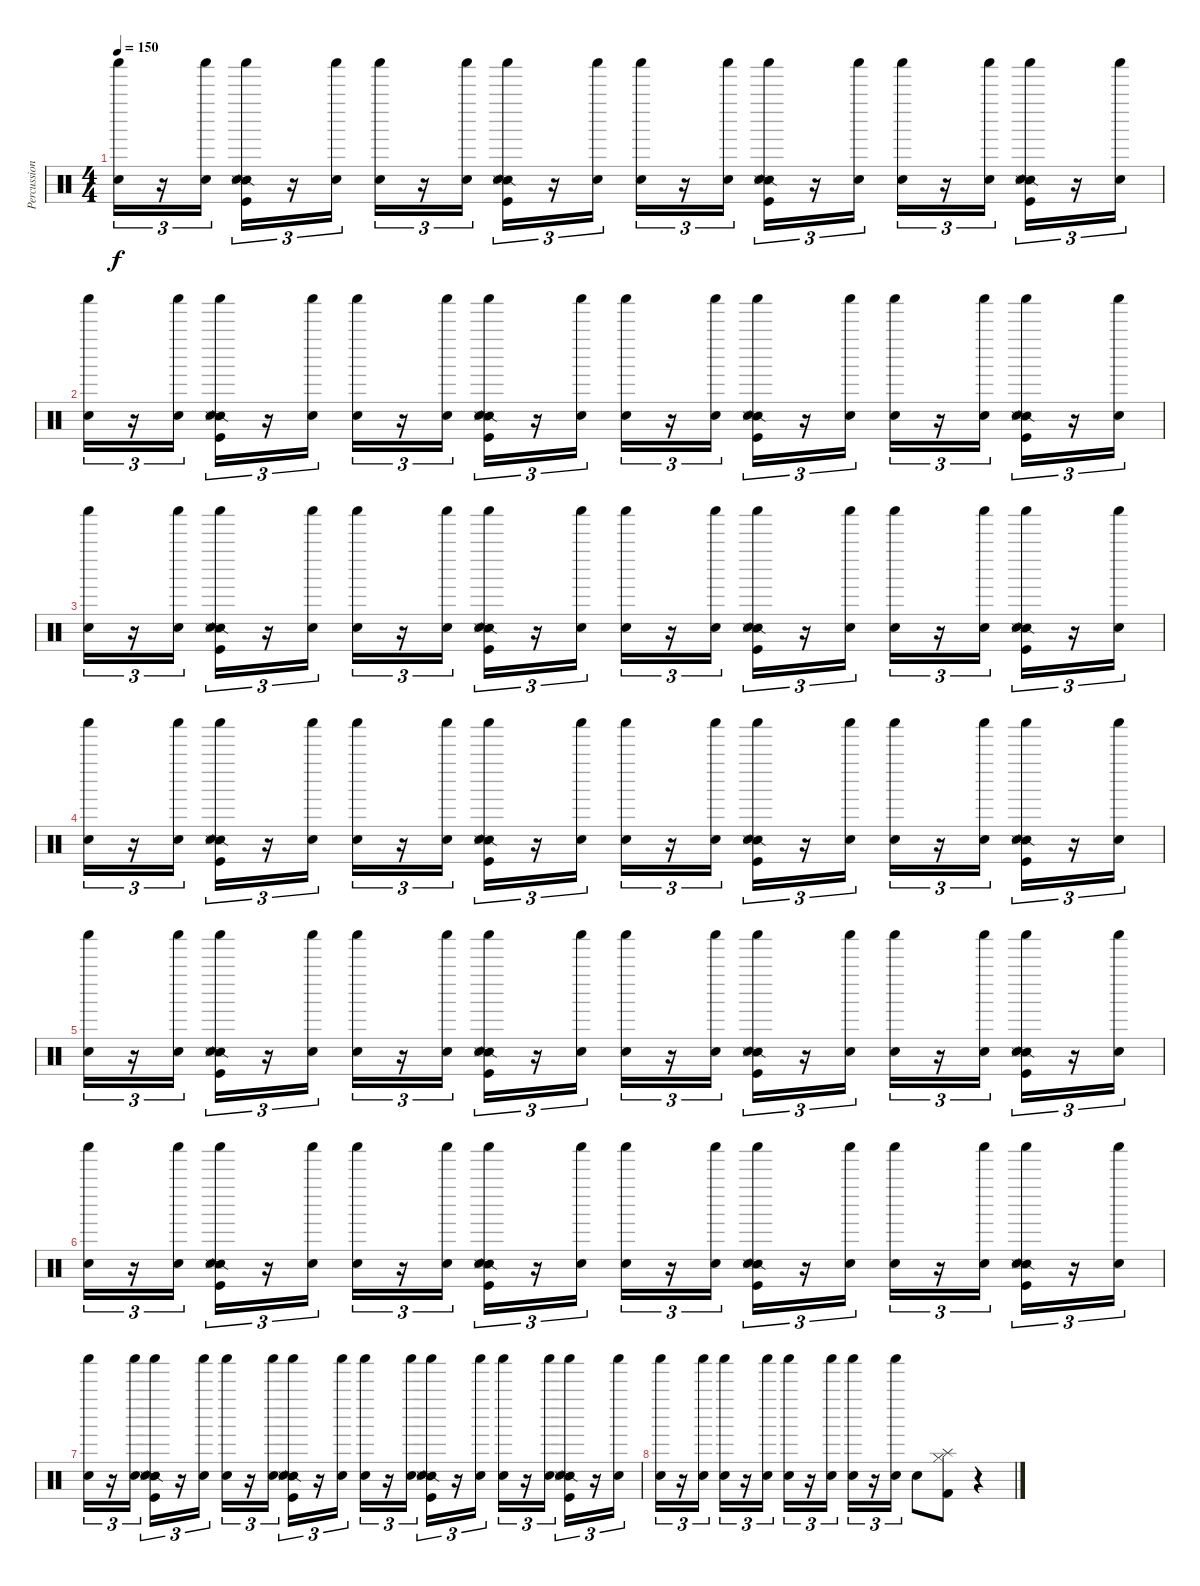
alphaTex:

\track ("Percussion" "Percussion") {instrument percussion}
\staff {score}
\articulation defaults
\ts (4 4)
\tempo 150
\clef neutral
\ks c
("Snare (hit) 2" "Shaker (hit)").16{tu (3 2) dy f} r.16{tu (3 2)} ("Snare (hit) 2" "Shaker (hit)").16{tu (3 2)} ("Snare (side stick) 2" "Snare (hit) 2" "Shaker (hit)" "Metronome (hit)" "Kick (hit)").16{tu (3 2)} r.16{tu (3 2)} ("Snare (hit) 2" "Shaker (hit)").16{tu (3 2)} ("Snare (hit) 2" "Shaker (hit)").16{tu (3 2)} r.16{tu (3 2)} ("Snare (hit) 2" "Shaker (hit)").16{tu (3 2)} ("Snare (side stick) 2" "Snare (hit) 2" "Shaker (hit)" "Metronome (hit)" "Kick (hit)").16{tu (3 2)} r.16{tu (3 2)} ("Snare (hit) 2" "Shaker (hit)").16{tu (3 2)} ("Snare (hit) 2" "Shaker (hit)").16{tu (3 2)} r.16{tu (3 2)} ("Snare (hit) 2" "Shaker (hit)").16{tu (3 2)} ("Snare (side stick) 2" "Snare (hit) 2" "Shaker (hit)" "Metronome (hit)" "Kick (hit)").16{tu (3 2)} r.16{tu (3 2)} ("Snare (hit) 2" "Shaker (hit)").16{tu (3 2)} ("Snare (hit) 2" "Shaker (hit)").16{tu (3 2)} r.16{tu (3 2)} ("Snare (hit) 2" "Shaker (hit)").16{tu (3 2)} ("Snare (side stick) 2" "Snare (hit) 2" "Shaker (hit)" "Metronome (hit)" "Kick (hit)").16{tu (3 2)} r.16{tu (3 2)} ("Snare (hit) 2" "Shaker (hit)").16{tu (3 2)} |
("Snare (hit) 2" "Shaker (hit)").16{tu (3 2)} r.16{tu (3 2)} ("Snare (hit) 2" "Shaker (hit)").16{tu (3 2)} ("Snare (side stick) 2" "Snare (hit) 2" "Shaker (hit)" "Metronome (hit)" "Kick (hit)").16{tu (3 2)} r.16{tu (3 2)} ("Snare (hit) 2" "Shaker (hit)").16{tu (3 2)} ("Snare (hit) 2" "Shaker (hit)").16{tu (3 2)} r.16{tu (3 2)} ("Snare (hit) 2" "Shaker (hit)").16{tu (3 2)} ("Snare (side stick) 2" "Snare (hit) 2" "Shaker (hit)" "Metronome (hit)" "Kick (hit)").16{tu (3 2)} r.16{tu (3 2)} ("Snare (hit) 2" "Shaker (hit)").16{tu (3 2)} ("Snare (hit) 2" "Shaker (hit)").16{tu (3 2)} r.16{tu (3 2)} ("Snare (hit) 2" "Shaker (hit)").16{tu (3 2)} ("Snare (side stick) 2" "Snare (hit) 2" "Shaker (hit)" "Metronome (hit)" "Kick (hit)").16{tu (3 2)} r.16{tu (3 2)} ("Snare (hit) 2" "Shaker (hit)").16{tu (3 2)} ("Snare (hit) 2" "Shaker (hit)").16{tu (3 2)} r.16{tu (3 2)} ("Snare (hit) 2" "Shaker (hit)").16{tu (3 2)} ("Snare (side stick) 2" "Snare (hit) 2" "Shaker (hit)" "Metronome (hit)" "Kick (hit)").16{tu (3 2)} r.16{tu (3 2)} ("Snare (hit) 2" "Shaker (hit)").16{tu (3 2)} |
("Snare (hit) 2" "Shaker (hit)").16{tu (3 2)} r.16{tu (3 2)} ("Snare (hit) 2" "Shaker (hit)").16{tu (3 2)} ("Snare (side stick) 2" "Snare (hit) 2" "Shaker (hit)" "Metronome (hit)" "Kick (hit)").16{tu (3 2)} r.16{tu (3 2)} ("Snare (hit) 2" "Shaker (hit)").16{tu (3 2)} ("Snare (hit) 2" "Shaker (hit)").16{tu (3 2)} r.16{tu (3 2)} ("Snare (hit) 2" "Shaker (hit)").16{tu (3 2)} ("Snare (side stick) 2" "Snare (hit) 2" "Shaker (hit)" "Metronome (hit)" "Kick (hit)").16{tu (3 2)} r.16{tu (3 2)} ("Snare (hit) 2" "Shaker (hit)").16{tu (3 2)} ("Snare (hit) 2" "Shaker (hit)").16{tu (3 2)} r.16{tu (3 2)} ("Snare (hit) 2" "Shaker (hit)").16{tu (3 2)} ("Snare (side stick) 2" "Snare (hit) 2" "Shaker (hit)" "Metronome (hit)" "Kick (hit)").16{tu (3 2)} r.16{tu (3 2)} ("Snare (hit) 2" "Shaker (hit)").16{tu (3 2)} ("Snare (hit) 2" "Shaker (hit)").16{tu (3 2)} r.16{tu (3 2)} ("Snare (hit) 2" "Shaker (hit)").16{tu (3 2)} ("Snare (side stick) 2" "Snare (hit) 2" "Shaker (hit)" "Metronome (hit)" "Kick (hit)").16{tu (3 2)} r.16{tu (3 2)} ("Snare (hit) 2" "Shaker (hit)").16{tu (3 2)} |
("Snare (hit) 2" "Shaker (hit)").16{tu (3 2)} r.16{tu (3 2)} ("Snare (hit) 2" "Shaker (hit)").16{tu (3 2)} ("Snare (side stick) 2" "Snare (hit) 2" "Shaker (hit)" "Metronome (hit)" "Kick (hit)").16{tu (3 2)} r.16{tu (3 2)} ("Snare (hit) 2" "Shaker (hit)").16{tu (3 2)} ("Snare (hit) 2" "Shaker (hit)").16{tu (3 2)} r.16{tu (3 2)} ("Snare (hit) 2" "Shaker (hit)").16{tu (3 2)} ("Snare (side stick) 2" "Snare (hit) 2" "Shaker (hit)" "Metronome (hit)" "Kick (hit)").16{tu (3 2)} r.16{tu (3 2)} ("Snare (hit) 2" "Shaker (hit)").16{tu (3 2)} ("Snare (hit) 2" "Shaker (hit)").16{tu (3 2)} r.16{tu (3 2)} ("Snare (hit) 2" "Shaker (hit)").16{tu (3 2)} ("Snare (side stick) 2" "Snare (hit) 2" "Shaker (hit)" "Metronome (hit)" "Kick (hit)").16{tu (3 2)} r.16{tu (3 2)} ("Snare (hit) 2" "Shaker (hit)").16{tu (3 2)} ("Snare (hit) 2" "Shaker (hit)").16{tu (3 2)} r.16{tu (3 2)} ("Snare (hit) 2" "Shaker (hit)").16{tu (3 2)} ("Snare (side stick) 2" "Snare (hit) 2" "Shaker (hit)" "Metronome (hit)" "Kick (hit)").16{tu (3 2)} r.16{tu (3 2)} ("Snare (hit) 2" "Shaker (hit)").16{tu (3 2)} |
("Snare (hit) 2" "Shaker (hit)").16{tu (3 2)} r.16{tu (3 2)} ("Snare (hit) 2" "Shaker (hit)").16{tu (3 2)} ("Snare (side stick) 2" "Snare (hit) 2" "Shaker (hit)" "Metronome (hit)" "Kick (hit)").16{tu (3 2)} r.16{tu (3 2)} ("Snare (hit) 2" "Shaker (hit)").16{tu (3 2)} ("Snare (hit) 2" "Shaker (hit)").16{tu (3 2)} r.16{tu (3 2)} ("Snare (hit) 2" "Shaker (hit)").16{tu (3 2)} ("Snare (side stick) 2" "Snare (hit) 2" "Shaker (hit)" "Metronome (hit)" "Kick (hit)").16{tu (3 2)} r.16{tu (3 2)} ("Snare (hit) 2" "Shaker (hit)").16{tu (3 2)} ("Snare (hit) 2" "Shaker (hit)").16{tu (3 2)} r.16{tu (3 2)} ("Snare (hit) 2" "Shaker (hit)").16{tu (3 2)} ("Snare (side stick) 2" "Snare (hit) 2" "Shaker (hit)" "Metronome (hit)" "Kick (hit)").16{tu (3 2)} r.16{tu (3 2)} ("Snare (hit) 2" "Shaker (hit)").16{tu (3 2)} ("Snare (hit) 2" "Shaker (hit)").16{tu (3 2)} r.16{tu (3 2)} ("Snare (hit) 2" "Shaker (hit)").16{tu (3 2)} ("Snare (side stick) 2" "Snare (hit) 2" "Shaker (hit)" "Metronome (hit)" "Kick (hit)").16{tu (3 2)} r.16{tu (3 2)} ("Snare (hit) 2" "Shaker (hit)").16{tu (3 2)} |
("Snare (hit) 2" "Shaker (hit)").16{tu (3 2)} r.16{tu (3 2)} ("Snare (hit) 2" "Shaker (hit)").16{tu (3 2)} ("Snare (side stick) 2" "Snare (hit) 2" "Shaker (hit)" "Metronome (hit)" "Kick (hit)").16{tu (3 2)} r.16{tu (3 2)} ("Snare (hit) 2" "Shaker (hit)").16{tu (3 2)} ("Snare (hit) 2" "Shaker (hit)").16{tu (3 2)} r.16{tu (3 2)} ("Snare (hit) 2" "Shaker (hit)").16{tu (3 2)} ("Snare (side stick) 2" "Snare (hit) 2" "Shaker (hit)" "Metronome (hit)" "Kick (hit)").16{tu (3 2)} r.16{tu (3 2)} ("Snare (hit) 2" "Shaker (hit)").16{tu (3 2)} ("Snare (hit) 2" "Shaker (hit)").16{tu (3 2)} r.16{tu (3 2)} ("Snare (hit) 2" "Shaker (hit)").16{tu (3 2)} ("Snare (side stick) 2" "Snare (hit) 2" "Shaker (hit)" "Metronome (hit)" "Kick (hit)").16{tu (3 2)} r.16{tu (3 2)} ("Snare (hit) 2" "Shaker (hit)").16{tu (3 2)} ("Snare (hit) 2" "Shaker (hit)").16{tu (3 2)} r.16{tu (3 2)} ("Snare (hit) 2" "Shaker (hit)").16{tu (3 2)} ("Snare (side stick) 2" "Snare (hit) 2" "Shaker (hit)" "Metronome (hit)" "Kick (hit)").16{tu (3 2)} r.16{tu (3 2)} ("Snare (hit) 2" "Shaker (hit)").16{tu (3 2)} |
("Snare (hit) 2" "Shaker (hit)").16{tu (3 2)} r.16{tu (3 2)} ("Snare (hit) 2" "Shaker (hit)").16{tu (3 2)} ("Snare (side stick) 2" "Snare (hit) 2" "Shaker (hit)" "Metronome (hit)" "Kick (hit)").16{tu (3 2)} r.16{tu (3 2)} ("Snare (hit) 2" "Shaker (hit)").16{tu (3 2)} ("Snare (hit) 2" "Shaker (hit)").16{tu (3 2)} r.16{tu (3 2)} ("Snare (hit) 2" "Shaker (hit)").16{tu (3 2)} ("Snare (side stick) 2" "Snare (hit) 2" "Shaker (hit)" "Metronome (hit)" "Kick (hit)").16{tu (3 2)} r.16{tu (3 2)} ("Snare (hit) 2" "Shaker (hit)").16{tu (3 2)} ("Snare (hit) 2" "Shaker (hit)").16{tu (3 2)} r.16{tu (3 2)} ("Snare (hit) 2" "Shaker (hit)").16{tu (3 2)} ("Snare (side stick) 2" "Snare (hit) 2" "Shaker (hit)" "Metronome (hit)" "Kick (hit)").16{tu (3 2)} r.16{tu (3 2)} ("Snare (hit) 2" "Shaker (hit)").16{tu (3 2)} ("Snare (hit) 2" "Shaker (hit)").16{tu (3 2)} r.16{tu (3 2)} ("Snare (hit) 2" "Shaker (hit)").16{tu (3 2)} ("Snare (side stick) 2" "Snare (hit) 2" "Shaker (hit)" "Metronome (hit)" "Kick (hit)").16{tu (3 2)} r.16{tu (3 2)} ("Snare (hit) 2" "Shaker (hit)").16{tu (3 2)} |
("Snare (hit) 2" "Shaker (hit)").16{tu (3 2)} r.16{tu (3 2)} ("Snare (hit) 2" "Shaker (hit)").16{tu (3 2)} ("Snare (hit) 2" "Shaker (hit)").16{tu (3 2)} r.16{tu (3 2)} ("Snare (hit) 2" "Shaker (hit)").16{tu (3 2)} ("Snare (hit) 2" "Shaker (hit)").16{tu (3 2)} r.16{tu (3 2)} ("Snare (hit) 2" "Shaker (hit)").16{tu (3 2)} ("Snare (hit) 2" "Shaker (hit)").16{tu (3 2)} r.16{tu (3 2)} ("Snare (hit) 2" "Shaker (hit)").16{tu (3 2)} "Snare (hit) 2".8 ("Hi-Hat (closed)" "Splash (hit)" "Kick (hit) 2").8 r.4
